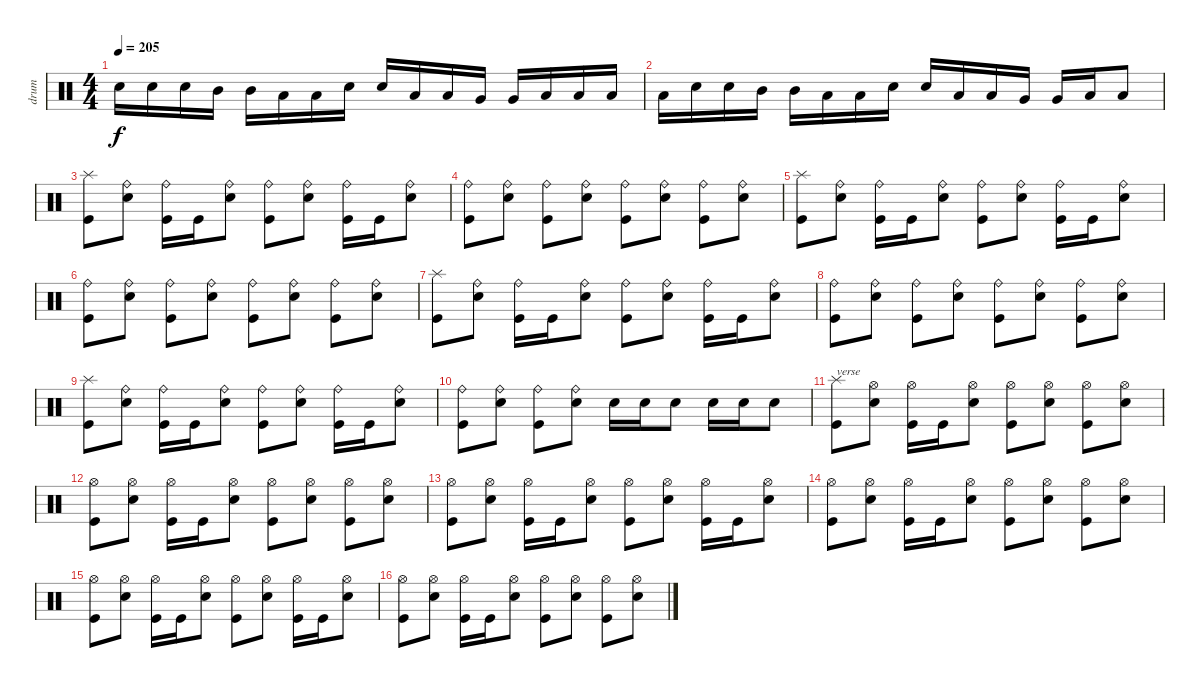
\track ("drum" "drum") {instrument percussion}
\staff {score}
\articulation defaults
\ts (4 4)
\tempo 205
\clef neutral
\ks c "Electric Snare (hit)".16{dy f} "Electric Snare (hit)".16 "Electric Snare (hit)".16 "Mid Tom (hit)".16 "Mid Tom (hit)".16 "Low Tom (hit)".16 "Low Tom (hit)".16 "Electric Snare (hit)".16 "Electric Snare (hit)".16 "Low Tom (hit)".16 "Low Tom (hit)".16 "Very Low Tom (hit)".16 "Very Low Tom (hit)".16 "Low Floor Tom (hit)".16 "Low Floor Tom (hit)".16 "Low Floor Tom (hit)".16
|
"Low Floor Tom (hit)".16 "Electric Snare (hit)".16 "Electric Snare (hit)".16 "Mid Tom (hit)".16 "Mid Tom (hit)".16 "Low Tom (hit)".16 "Low Tom (hit)".16 "Electric Snare (hit)".16 "Electric Snare (hit)".16 "Low Tom (hit)".16 "Low Tom (hit)".16 "Very Low Tom (hit)".16 "Very Low Tom (hit)".16 "Low Floor Tom (hit)".16 "Low Floor Tom (hit)".8 |
("Kick (hit)" "Splash (hit)").8 ("Electric Snare (hit)" "Ride (bell)").8 ("Kick (hit)" "Ride (bell)").16 "Kick (hit)".16 ("Electric Snare (hit)" "Ride (bell)").8 ("Kick (hit)" "Ride (bell)").8 ("Electric Snare (hit)" "Ride (bell)").8 ("Kick (hit)" "Ride (bell)").16 "Kick (hit)".16 ("Electric Snare (hit)" "Ride (bell)").8 |
("Kick (hit)" "Ride (bell)").8 ("Electric Snare (hit)" "Ride (bell)").8 ("Kick (hit)" "Ride (bell)").8 ("Electric Snare (hit)" "Ride (bell)").8 ("Kick (hit)" "Ride (bell)").8 ("Electric Snare (hit)" "Ride (bell)").8 ("Kick (hit)" "Ride (bell)").8 ("Electric Snare (hit)" "Ride (bell)").8 |
("Kick (hit)" "Splash (hit)").8 ("Electric Snare (hit)" "Ride (bell)").8 ("Kick (hit)" "Ride (bell)").16 "Kick (hit)".16 ("Electric Snare (hit)" "Ride (bell)").8 ("Kick (hit)" "Ride (bell)").8 ("Electric Snare (hit)" "Ride (bell)").8 ("Kick (hit)" "Ride (bell)").16 "Kick (hit)".16 ("Electric Snare (hit)" "Ride (bell)").8 |
("Kick (hit)" "Ride (bell)").8 ("Electric Snare (hit)" "Ride (bell)").8 ("Kick (hit)" "Ride (bell)").8 ("Electric Snare (hit)" "Ride (bell)").8 ("Kick (hit)" "Ride (bell)").8 ("Electric Snare (hit)" "Ride (bell)").8 ("Kick (hit)" "Ride (bell)").8 ("Electric Snare (hit)" "Ride (bell)").8 |
("Kick (hit)" "Splash (hit)").8 ("Electric Snare (hit)" "Ride (bell)").8 ("Kick (hit)" "Ride (bell)").16 "Kick (hit)".16 ("Electric Snare (hit)" "Ride (bell)").8 ("Kick (hit)" "Ride (bell)").8 ("Electric Snare (hit)" "Ride (bell)").8 ("Kick (hit)" "Ride (bell)").16 "Kick (hit)".16 ("Electric Snare (hit)" "Ride (bell)").8 |
("Kick (hit)" "Ride (bell)").8 ("Electric Snare (hit)" "Ride (bell)").8 ("Kick (hit)" "Ride (bell)").8 ("Electric Snare (hit)" "Ride (bell)").8 ("Kick (hit)" "Ride (bell)").8 ("Electric Snare (hit)" "Ride (bell)").8 ("Kick (hit)" "Ride (bell)").8 ("Electric Snare (hit)" "Ride (bell)").8 |
("Kick (hit)" "Splash (hit)").8 ("Electric Snare (hit)" "Ride (bell)").8 ("Kick (hit)" "Ride (bell)").16 "Kick (hit)".16 ("Electric Snare (hit)" "Ride (bell)").8 ("Kick (hit)" "Ride (bell)").8 ("Electric Snare (hit)" "Ride (bell)").8 ("Kick (hit)" "Ride (bell)").16 "Kick (hit)".16 ("Electric Snare (hit)" "Ride (bell)").8 |
("Kick (hit)" "Ride (bell)").8 ("Electric Snare (hit)" "Ride (bell)").8 ("Kick (hit)" "Ride (bell)").8 ("Electric Snare (hit)" "Ride (bell)").8 "Electric Snare (hit)".16 "Electric Snare (hit)".16 "Electric Snare (hit)".8 "Electric Snare (hit)".16 "Electric Snare (hit)".16 "Electric Snare (hit)".8 |
("Kick (hit)" "Splash (hit)").8{txt "verse"} ("Electric Snare (hit)" "Hi-Hat (open)").8 ("Kick (hit)" "Hi-Hat (open)").16 "Kick (hit)".16 ("Electric Snare (hit)" "Hi-Hat (open)").8 ("Kick (hit)" "Hi-Hat (open)").8 ("Electric Snare (hit)" "Hi-Hat (open)").8 ("Kick (hit)" "Hi-Hat (open)").8 ("Electric Snare (hit)" "Hi-Hat (open)").8 |
("Kick (hit)" "Hi-Hat (open)").8 ("Electric Snare (hit)" "Hi-Hat (open)").8 ("Kick (hit)" "Hi-Hat (open)").16 "Kick (hit)".16 ("Electric Snare (hit)" "Hi-Hat (open)").8 ("Kick (hit)" "Hi-Hat (open)").8 ("Electric Snare (hit)" "Hi-Hat (open)").8 ("Kick (hit)" "Hi-Hat (open)").8 ("Electric Snare (hit)" "Hi-Hat (open)").8 |
("Kick (hit)" "Hi-Hat (open)").8 ("Electric Snare (hit)" "Hi-Hat (open)").8 ("Kick (hit)" "Hi-Hat (open)").16 "Kick (hit)".16 ("Electric Snare (hit)" "Hi-Hat (open)").8 ("Kick (hit)" "Hi-Hat (open)").8 ("Electric Snare (hit)" "Hi-Hat (open)").8 ("Kick (hit)" "Hi-Hat (open)").16 "Kick (hit)".16 ("Electric Snare (hit)" "Hi-Hat (open)").8 |
("Kick (hit)" "Hi-Hat (open)").8 ("Electric Snare (hit)" "Hi-Hat (open)").8 ("Kick (hit)" "Hi-Hat (open)").16 "Kick (hit)".16 ("Electric Snare (hit)" "Hi-Hat (open)").8 ("Kick (hit)" "Hi-Hat (open)").8 ("Electric Snare (hit)" "Hi-Hat (open)").8 ("Kick (hit)" "Hi-Hat (open)").8 ("Electric Snare (hit)" "Hi-Hat (open)").8 |
("Kick (hit)" "Hi-Hat (open)").8 ("Electric Snare (hit)" "Hi-Hat (open)").8 ("Kick (hit)" "Hi-Hat (open)").16 "Kick (hit)".16 ("Electric Snare (hit)" "Hi-Hat (open)").8 ("Kick (hit)" "Hi-Hat (open)").8 ("Electric Snare (hit)" "Hi-Hat (open)").8 ("Kick (hit)" "Hi-Hat (open)").16 "Kick (hit)".16 ("Electric Snare (hit)" "Hi-Hat (open)").8 |
("Kick (hit)" "Hi-Hat (open)").8 ("Electric Snare (hit)" "Hi-Hat (open)").8 ("Kick (hit)" "Hi-Hat (open)").16 "Kick (hit)".16 ("Electric Snare (hit)" "Hi-Hat (open)").8 ("Kick (hit)" "Hi-Hat (open)").8 ("Electric Snare (hit)" "Hi-Hat (open)").8 ("Kick (hit)" "Hi-Hat (open)").8 ("Electric Snare (hit)" "Hi-Hat (open)").8
